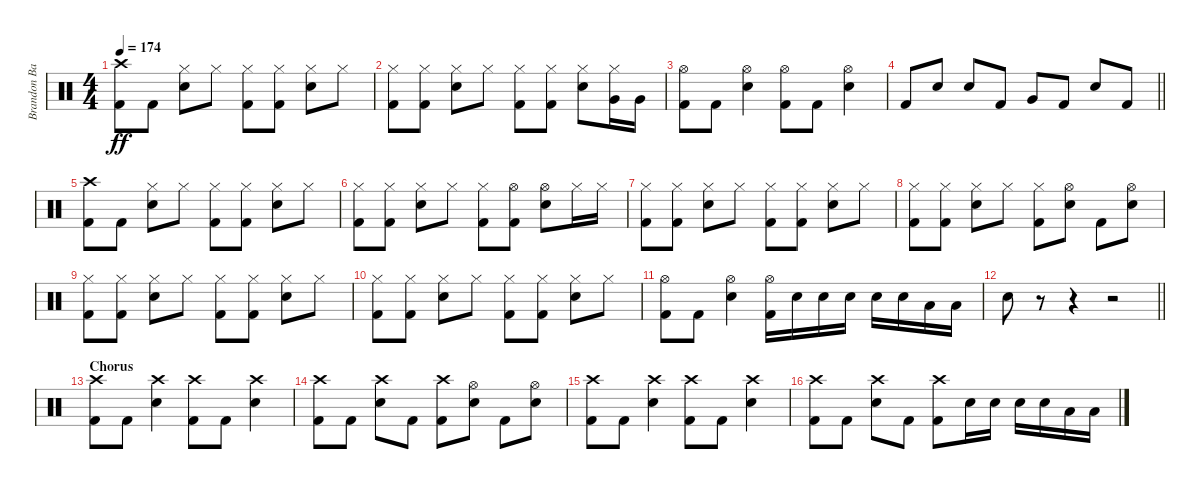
\track ("Brandon Barnes - Drums" "Brandon Ba") {instrument percussion}
\staff {score}
\articulation defaults
\ts (4 4)
\tempo 174
\clef neutral
\ks c
("Crash high (hit)" "Kick (hit) 2").8{dy ff} "Kick (hit) 2".8 ("Snare (hit) 2" "Hi-Hat (closed)").8 "Hi-Hat (closed)".8 ("Kick (hit) 2" "Hi-Hat (closed)").8 ("Kick (hit) 2" "Hi-Hat (closed)").8 ("Snare (hit) 2" "Hi-Hat (closed)").8 "Hi-Hat (closed)".8 |
("Kick (hit) 2" "Hi-Hat (closed)").8 ("Kick (hit) 2" "Hi-Hat (closed)").8 ("Snare (hit) 2" "Hi-Hat (closed)").8 "Hi-Hat (closed)".8 ("Kick (hit) 2" "Hi-Hat (closed)").8 ("Kick (hit) 2" "Hi-Hat (closed)").8 ("Snare (hit) 2" "Hi-Hat (closed)").8 ("Very Low Tom (hit)" "Hi-Hat (closed)").16 "Very Low Tom (hit)".16 |
("Kick (hit) 2" "Hi-Hat (open)").8 "Kick (hit) 2".8 ("Snare (hit) 2" "Hi-Hat (open)").4 ("Kick (hit) 2" "Hi-Hat (open)").8 "Kick (hit) 2".8 ("Snare (hit) 2" "Hi-Hat (open)").4 |
\barLineRight lightlight "Kick (hit) 2".8 "Snare (hit) 2".8 "Snare (hit) 2".8 "Kick (hit) 2".8 "Very Low Tom (hit)".8 "Kick (hit) 2".8 "Snare (hit) 2".8 "Kick (hit) 2".8
|
("Crash high (hit)" "Kick (hit) 2").8 "Kick (hit) 2".8 ("Snare (hit) 2" "Hi-Hat (closed)").8 "Hi-Hat (closed)".8 ("Kick (hit) 2" "Hi-Hat (closed)").8 ("Kick (hit) 2" "Hi-Hat (closed)").8 ("Snare (hit) 2" "Hi-Hat (closed)").8 "Hi-Hat (closed)".8 |
("Kick (hit) 2" "Hi-Hat (closed)").8 ("Kick (hit) 2" "Hi-Hat (closed)").8 ("Snare (hit) 2" "Hi-Hat (closed)").8 "Hi-Hat (closed)".8 ("Kick (hit) 2" "Hi-Hat (closed)").8 ("Kick (hit) 2" "Hi-Hat (open)").8 ("Snare (hit) 2" "Hi-Hat (open)").8 "Hi-Hat (closed)".16 "Hi-Hat (closed)".16 |
("Kick (hit) 2" "Hi-Hat (closed)").8 ("Kick (hit) 2" "Hi-Hat (closed)").8 ("Snare (hit) 2" "Hi-Hat (closed)").8 "Hi-Hat (closed)".8 ("Kick (hit) 2" "Hi-Hat (closed)").8 ("Kick (hit) 2" "Hi-Hat (closed)").8 ("Snare (hit) 2" "Hi-Hat (closed)").8 "Hi-Hat (closed)".8 |
("Kick (hit) 2" "Hi-Hat (closed)").8 ("Kick (hit) 2" "Hi-Hat (closed)").8 ("Snare (hit) 2" "Hi-Hat (closed)").8 "Hi-Hat (closed)".8 ("Kick (hit) 2" "Hi-Hat (closed)").8 ("Snare (hit) 2" "Hi-Hat (open)").8 "Kick (hit) 2".8 ("Snare (hit) 2" "Hi-Hat (open)").8 |
("Kick (hit) 2" "Hi-Hat (closed)").8 ("Kick (hit) 2" "Hi-Hat (closed)").8 ("Snare (hit) 2" "Hi-Hat (closed)").8 "Hi-Hat (closed)".8 ("Kick (hit) 2" "Hi-Hat (closed)").8 ("Kick (hit) 2" "Hi-Hat (closed)").8 ("Snare (hit) 2" "Hi-Hat (closed)").8 "Hi-Hat (closed)".8 |
("Kick (hit) 2" "Hi-Hat (closed)").8 ("Kick (hit) 2" "Hi-Hat (closed)").8 ("Snare (hit) 2" "Hi-Hat (closed)").8 "Hi-Hat (closed)".8 ("Kick (hit) 2" "Hi-Hat (closed)").8 ("Kick (hit) 2" "Hi-Hat (closed)").8 ("Snare (hit) 2" "Hi-Hat (closed)").8 "Hi-Hat (closed)".8 |
("Kick (hit) 2" "Hi-Hat (open)").8 "Kick (hit) 2".8 ("Snare (hit) 2" "Hi-Hat (open)").4 ("Kick (hit) 2" "Hi-Hat (open)").16 "Snare (hit) 2".16 "Snare (hit) 2".16 "Snare (hit) 2".16 "Snare (hit) 2".16 "Snare (hit) 2".16 "Low Tom (hit)".16 "Low Tom (hit)".16 |
\barLineRight lightlight "Snare (hit) 2".8
r.8 r.4 r.2 |
\section ("" "Chorus")
("Kick (hit) 2" "Crash high (hit)").8 "Kick (hit) 2".8 ("Snare (hit) 2" "Crash high (hit)").4 ("Kick (hit) 2" "Crash high (hit)").8 "Kick (hit) 2".8 ("Snare (hit) 2" "Crash high (hit)").4 |
("Kick (hit) 2" "Crash high (hit)").8 "Kick (hit) 2".8 ("Snare (hit) 2" "Crash high (hit)").8 "Kick (hit) 2".8 ("Kick (hit) 2" "Crash high (hit)").8 ("Snare (hit) 2" "Hi-Hat (open)").8 "Kick (hit) 2".8 ("Snare (hit) 2" "Hi-Hat (open)").8 |
("Kick (hit) 2" "Crash high (hit)").8 "Kick (hit) 2".8 ("Snare (hit) 2" "Crash high (hit)").4 ("Kick (hit) 2" "Crash high (hit)").8 "Kick (hit) 2".8 ("Snare (hit) 2" "Crash high (hit)").4 |
("Kick (hit) 2" "Crash high (hit)").8 "Kick (hit) 2".8 ("Snare (hit) 2" "Crash high (hit)").8 "Kick (hit) 2".8 ("Kick (hit) 2" "Crash high (hit)").8 "Snare (hit) 2".16 "Snare (hit) 2".16 "Snare (hit) 2".16 "Snare (hit) 2".16 "Low Tom (hit)".16 "Low Tom (hit)".16
